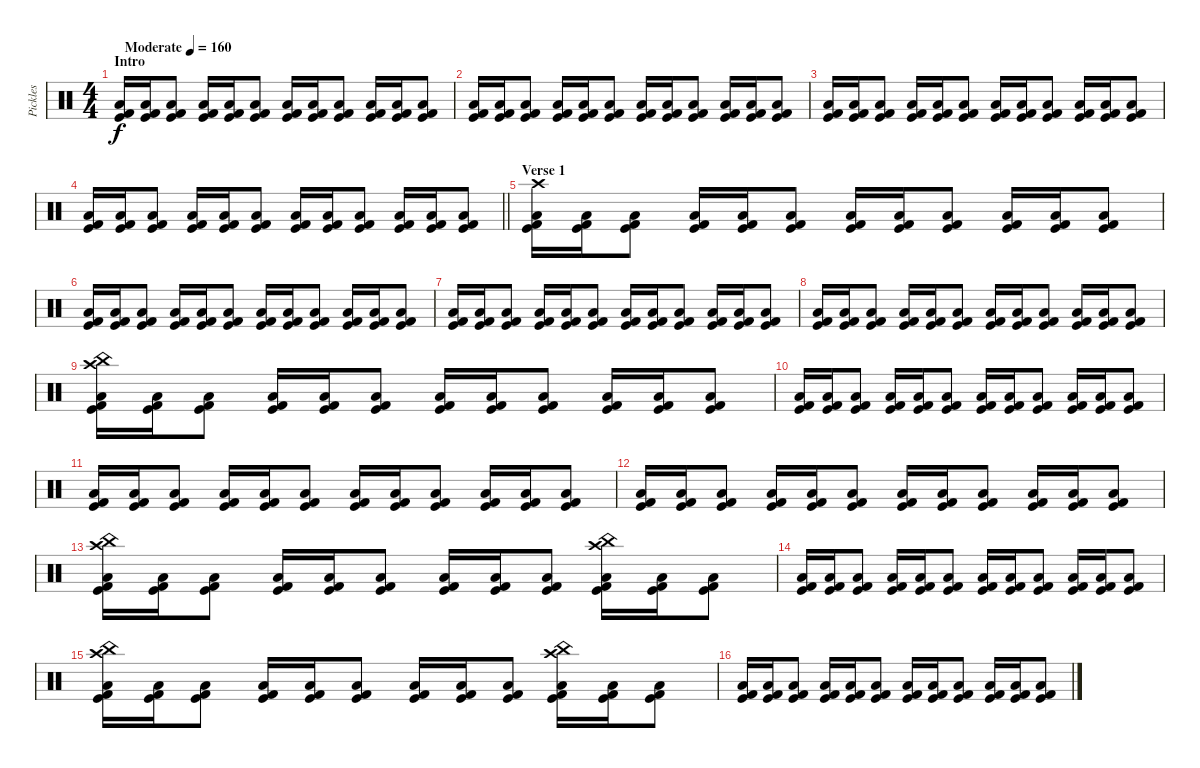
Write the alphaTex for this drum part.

\track ("Pickles" "Pickles") {instrument percussion}
\staff {score}
\articulation defaults
\ts (4 4)
\section ("" "Intro")
\tempo (160 "Moderate")
\clef neutral
\ks c
("Kick (hit) 2" "Kick (hit)" "Low Tom (hit)").16{dy f} ("Kick (hit) 2" "Kick (hit)" "Low Tom (hit)").16 ("Kick (hit) 2" "Kick (hit)" "Low Tom (hit)").8 ("Kick (hit) 2" "Kick (hit)" "Low Tom (hit)").16 ("Kick (hit) 2" "Kick (hit)" "Low Tom (hit)").16 ("Kick (hit) 2" "Kick (hit)" "Low Tom (hit)").8 ("Kick (hit) 2" "Kick (hit)" "Low Tom (hit)").16 ("Kick (hit) 2" "Kick (hit)" "Low Tom (hit)").16 ("Kick (hit) 2" "Kick (hit)" "Low Tom (hit)").8 ("Kick (hit) 2" "Kick (hit)" "Low Tom (hit)").16 ("Kick (hit) 2" "Kick (hit)" "Low Tom (hit)").16 ("Kick (hit) 2" "Kick (hit)" "Low Tom (hit)").8 |
("Kick (hit) 2" "Kick (hit)" "Low Tom (hit)").16 ("Kick (hit) 2" "Kick (hit)" "Low Tom (hit)").16 ("Kick (hit) 2" "Kick (hit)" "Low Tom (hit)").8 ("Kick (hit) 2" "Kick (hit)" "Low Tom (hit)").16 ("Kick (hit) 2" "Kick (hit)" "Low Tom (hit)").16 ("Kick (hit) 2" "Kick (hit)" "Low Tom (hit)").8 ("Kick (hit) 2" "Kick (hit)" "Low Tom (hit)").16 ("Kick (hit) 2" "Kick (hit)" "Low Tom (hit)").16 ("Kick (hit) 2" "Kick (hit)" "Low Tom (hit)").8 ("Kick (hit) 2" "Kick (hit)" "Low Tom (hit)").16 ("Kick (hit) 2" "Kick (hit)" "Low Tom (hit)").16 ("Kick (hit) 2" "Kick (hit)" "Low Tom (hit)").8 |
("Kick (hit) 2" "Kick (hit)" "Low Tom (hit)").16 ("Kick (hit) 2" "Kick (hit)" "Low Tom (hit)").16 ("Kick (hit) 2" "Kick (hit)" "Low Tom (hit)").8 ("Kick (hit) 2" "Kick (hit)" "Low Tom (hit)").16 ("Kick (hit) 2" "Kick (hit)" "Low Tom (hit)").16 ("Kick (hit) 2" "Kick (hit)" "Low Tom (hit)").8 ("Kick (hit) 2" "Kick (hit)" "Low Tom (hit)").16 ("Kick (hit) 2" "Kick (hit)" "Low Tom (hit)").16 ("Kick (hit) 2" "Kick (hit)" "Low Tom (hit)").8 ("Kick (hit) 2" "Kick (hit)" "Low Tom (hit)").16 ("Kick (hit) 2" "Kick (hit)" "Low Tom (hit)").16 ("Kick (hit) 2" "Kick (hit)" "Low Tom (hit)").8 |
\barLineRight lightlight
("Kick (hit) 2" "Kick (hit)" "Low Tom (hit)").16 ("Kick (hit) 2" "Kick (hit)" "Low Tom (hit)").16 ("Kick (hit) 2" "Kick (hit)" "Low Tom (hit)").8 ("Kick (hit) 2" "Kick (hit)" "Low Tom (hit)").16 ("Kick (hit) 2" "Kick (hit)" "Low Tom (hit)").16 ("Kick (hit) 2" "Kick (hit)" "Low Tom (hit)").8 ("Kick (hit) 2" "Kick (hit)" "Low Tom (hit)").16 ("Kick (hit) 2" "Kick (hit)" "Low Tom (hit)").16 ("Kick (hit) 2" "Kick (hit)" "Low Tom (hit)").8 ("Kick (hit) 2" "Kick (hit)" "Low Tom (hit)").16 ("Kick (hit) 2" "Kick (hit)" "Low Tom (hit)").16 ("Kick (hit) 2" "Kick (hit)" "Low Tom (hit)").8 |
\section ("" "Verse 1")
("Kick (hit) 2" "Kick (hit)" "Low Tom (hit)" "Crash high (hit)").16 ("Kick (hit) 2" "Kick (hit)" "Low Tom (hit)").16 ("Kick (hit) 2" "Kick (hit)" "Low Tom (hit)").8 ("Kick (hit) 2" "Kick (hit)" "Low Tom (hit)").16 ("Kick (hit) 2" "Kick (hit)" "Low Tom (hit)").16 ("Kick (hit) 2" "Kick (hit)" "Low Tom (hit)").8 ("Kick (hit) 2" "Kick (hit)" "Low Tom (hit)").16 ("Kick (hit) 2" "Kick (hit)" "Low Tom (hit)").16 ("Kick (hit) 2" "Kick (hit)" "Low Tom (hit)").8 ("Kick (hit) 2" "Kick (hit)" "Low Tom (hit)").16 ("Kick (hit) 2" "Kick (hit)" "Low Tom (hit)").16 ("Kick (hit) 2" "Kick (hit)" "Low Tom (hit)").8 |
("Kick (hit) 2" "Kick (hit)" "Low Tom (hit)").16 ("Kick (hit) 2" "Kick (hit)" "Low Tom (hit)").16 ("Kick (hit) 2" "Kick (hit)" "Low Tom (hit)").8 ("Kick (hit) 2" "Kick (hit)" "Low Tom (hit)").16 ("Kick (hit) 2" "Kick (hit)" "Low Tom (hit)").16 ("Kick (hit) 2" "Kick (hit)" "Low Tom (hit)").8 ("Kick (hit) 2" "Kick (hit)" "Low Tom (hit)").16 ("Kick (hit) 2" "Kick (hit)" "Low Tom (hit)").16 ("Kick (hit) 2" "Kick (hit)" "Low Tom (hit)").8 ("Kick (hit) 2" "Kick (hit)" "Low Tom (hit)").16 ("Kick (hit) 2" "Kick (hit)" "Low Tom (hit)").16 ("Kick (hit) 2" "Kick (hit)" "Low Tom (hit)").8 |
("Kick (hit) 2" "Kick (hit)" "Low Tom (hit)").16 ("Kick (hit) 2" "Kick (hit)" "Low Tom (hit)").16 ("Kick (hit) 2" "Kick (hit)" "Low Tom (hit)").8 ("Kick (hit) 2" "Kick (hit)" "Low Tom (hit)").16 ("Kick (hit) 2" "Kick (hit)" "Low Tom (hit)").16 ("Kick (hit) 2" "Kick (hit)" "Low Tom (hit)").8 ("Kick (hit) 2" "Kick (hit)" "Low Tom (hit)").16 ("Kick (hit) 2" "Kick (hit)" "Low Tom (hit)").16 ("Kick (hit) 2" "Kick (hit)" "Low Tom (hit)").8 ("Kick (hit) 2" "Kick (hit)" "Low Tom (hit)").16 ("Kick (hit) 2" "Kick (hit)" "Low Tom (hit)").16 ("Kick (hit) 2" "Kick (hit)" "Low Tom (hit)").8 |
("Kick (hit) 2" "Kick (hit)" "Low Tom (hit)").16 ("Kick (hit) 2" "Kick (hit)" "Low Tom (hit)").16 ("Kick (hit) 2" "Kick (hit)" "Low Tom (hit)").8 ("Kick (hit) 2" "Kick (hit)" "Low Tom (hit)").16 ("Kick (hit) 2" "Kick (hit)" "Low Tom (hit)").16 ("Kick (hit) 2" "Kick (hit)" "Low Tom (hit)").8 ("Kick (hit) 2" "Kick (hit)" "Low Tom (hit)").16 ("Kick (hit) 2" "Kick (hit)" "Low Tom (hit)").16 ("Kick (hit) 2" "Kick (hit)" "Low Tom (hit)").8 ("Kick (hit) 2" "Kick (hit)" "Low Tom (hit)").16 ("Kick (hit) 2" "Kick (hit)" "Low Tom (hit)").16 ("Kick (hit) 2" "Kick (hit)" "Low Tom (hit)").8 |
("Kick (hit) 2" "Kick (hit)" "Low Tom (hit)" "China (hit)" "Crash high (hit)").16 ("Kick (hit) 2" "Kick (hit)" "Low Tom (hit)").16 ("Kick (hit) 2" "Kick (hit)" "Low Tom (hit)").8 ("Kick (hit) 2" "Kick (hit)" "Low Tom (hit)").16 ("Kick (hit) 2" "Kick (hit)" "Low Tom (hit)").16 ("Kick (hit) 2" "Kick (hit)" "Low Tom (hit)").8 ("Kick (hit) 2" "Kick (hit)" "Low Tom (hit)").16 ("Kick (hit) 2" "Kick (hit)" "Low Tom (hit)").16 ("Kick (hit) 2" "Kick (hit)" "Low Tom (hit)").8 ("Kick (hit) 2" "Kick (hit)" "Low Tom (hit)").16 ("Kick (hit) 2" "Kick (hit)" "Low Tom (hit)").16 ("Kick (hit) 2" "Kick (hit)" "Low Tom (hit)").8 |
("Kick (hit) 2" "Kick (hit)" "Low Tom (hit)").16 ("Kick (hit) 2" "Kick (hit)" "Low Tom (hit)").16 ("Kick (hit) 2" "Kick (hit)" "Low Tom (hit)").8 ("Kick (hit) 2" "Kick (hit)" "Low Tom (hit)").16 ("Kick (hit) 2" "Kick (hit)" "Low Tom (hit)").16 ("Kick (hit) 2" "Kick (hit)" "Low Tom (hit)").8 ("Kick (hit) 2" "Kick (hit)" "Low Tom (hit)").16 ("Kick (hit) 2" "Kick (hit)" "Low Tom (hit)").16 ("Kick (hit) 2" "Kick (hit)" "Low Tom (hit)").8 ("Kick (hit) 2" "Kick (hit)" "Low Tom (hit)").16 ("Kick (hit) 2" "Kick (hit)" "Low Tom (hit)").16 ("Kick (hit) 2" "Kick (hit)" "Low Tom (hit)").8 |
("Kick (hit) 2" "Kick (hit)" "Low Tom (hit)").16 ("Kick (hit) 2" "Kick (hit)" "Low Tom (hit)").16 ("Kick (hit) 2" "Kick (hit)" "Low Tom (hit)").8 ("Kick (hit) 2" "Kick (hit)" "Low Tom (hit)").16 ("Kick (hit) 2" "Kick (hit)" "Low Tom (hit)").16 ("Kick (hit) 2" "Kick (hit)" "Low Tom (hit)").8 ("Kick (hit) 2" "Kick (hit)" "Low Tom (hit)").16 ("Kick (hit) 2" "Kick (hit)" "Low Tom (hit)").16 ("Kick (hit) 2" "Kick (hit)" "Low Tom (hit)").8 ("Kick (hit) 2" "Kick (hit)" "Low Tom (hit)").16 ("Kick (hit) 2" "Kick (hit)" "Low Tom (hit)").16 ("Kick (hit) 2" "Kick (hit)" "Low Tom (hit)").8 |
("Kick (hit) 2" "Kick (hit)" "Low Tom (hit)").16 ("Kick (hit) 2" "Kick (hit)" "Low Tom (hit)").16 ("Kick (hit) 2" "Kick (hit)" "Low Tom (hit)").8 ("Kick (hit) 2" "Kick (hit)" "Low Tom (hit)").16 ("Kick (hit) 2" "Kick (hit)" "Low Tom (hit)").16 ("Kick (hit) 2" "Kick (hit)" "Low Tom (hit)").8 ("Kick (hit) 2" "Kick (hit)" "Low Tom (hit)").16 ("Kick (hit) 2" "Kick (hit)" "Low Tom (hit)").16 ("Kick (hit) 2" "Kick (hit)" "Low Tom (hit)").8 ("Kick (hit) 2" "Kick (hit)" "Low Tom (hit)").16 ("Kick (hit) 2" "Kick (hit)" "Low Tom (hit)").16 ("Kick (hit) 2" "Kick (hit)" "Low Tom (hit)").8 |
("Kick (hit) 2" "Kick (hit)" "Low Tom (hit)" "China (hit)" "Crash high (hit)").16 ("Kick (hit) 2" "Kick (hit)" "Low Tom (hit)").16 ("Kick (hit) 2" "Kick (hit)" "Low Tom (hit)").8 ("Kick (hit) 2" "Kick (hit)" "Low Tom (hit)").16 ("Kick (hit) 2" "Kick (hit)" "Low Tom (hit)").16 ("Kick (hit) 2" "Kick (hit)" "Low Tom (hit)").8 ("Kick (hit) 2" "Kick (hit)" "Low Tom (hit)").16 ("Kick (hit) 2" "Kick (hit)" "Low Tom (hit)").16 ("Kick (hit) 2" "Kick (hit)" "Low Tom (hit)").8 ("Kick (hit) 2" "Kick (hit)" "Low Tom (hit)" "China (hit)" "Crash high (hit)").16 ("Kick (hit) 2" "Kick (hit)" "Low Tom (hit)").16 ("Kick (hit) 2" "Kick (hit)" "Low Tom (hit)").8 |
("Kick (hit) 2" "Kick (hit)" "Low Tom (hit)").16 ("Kick (hit) 2" "Kick (hit)" "Low Tom (hit)").16 ("Kick (hit) 2" "Kick (hit)" "Low Tom (hit)").8 ("Kick (hit) 2" "Kick (hit)" "Low Tom (hit)").16 ("Kick (hit) 2" "Kick (hit)" "Low Tom (hit)").16 ("Kick (hit) 2" "Kick (hit)" "Low Tom (hit)").8 ("Kick (hit) 2" "Kick (hit)" "Low Tom (hit)").16 ("Kick (hit) 2" "Kick (hit)" "Low Tom (hit)").16 ("Kick (hit) 2" "Kick (hit)" "Low Tom (hit)").8 ("Kick (hit) 2" "Kick (hit)" "Low Tom (hit)").16 ("Kick (hit) 2" "Kick (hit)" "Low Tom (hit)").16 ("Kick (hit) 2" "Kick (hit)" "Low Tom (hit)").8 |
("Kick (hit) 2" "Kick (hit)" "Low Tom (hit)" "China (hit)" "Crash high (hit)").16 ("Kick (hit) 2" "Kick (hit)" "Low Tom (hit)").16 ("Kick (hit) 2" "Kick (hit)" "Low Tom (hit)").8 ("Kick (hit) 2" "Kick (hit)" "Low Tom (hit)").16 ("Kick (hit) 2" "Kick (hit)" "Low Tom (hit)").16 ("Kick (hit) 2" "Kick (hit)" "Low Tom (hit)").8 ("Kick (hit) 2" "Kick (hit)" "Low Tom (hit)").16 ("Kick (hit) 2" "Kick (hit)" "Low Tom (hit)").16 ("Kick (hit) 2" "Kick (hit)" "Low Tom (hit)").8 ("Kick (hit) 2" "Kick (hit)" "Low Tom (hit)" "China (hit)" "Crash high (hit)").16 ("Kick (hit) 2" "Kick (hit)" "Low Tom (hit)").16 ("Kick (hit) 2" "Kick (hit)" "Low Tom (hit)").8 |
("Kick (hit) 2" "Kick (hit)" "Low Tom (hit)").16 ("Kick (hit) 2" "Kick (hit)" "Low Tom (hit)").16 ("Kick (hit) 2" "Kick (hit)" "Low Tom (hit)").8 ("Kick (hit) 2" "Kick (hit)" "Low Tom (hit)").16 ("Kick (hit) 2" "Kick (hit)" "Low Tom (hit)").16 ("Kick (hit) 2" "Kick (hit)" "Low Tom (hit)").8 ("Kick (hit) 2" "Kick (hit)" "Low Tom (hit)").16 ("Kick (hit) 2" "Kick (hit)" "Low Tom (hit)").16 ("Kick (hit) 2" "Kick (hit)" "Low Tom (hit)").8 ("Kick (hit) 2" "Kick (hit)" "Low Tom (hit)").16 ("Kick (hit) 2" "Kick (hit)" "Low Tom (hit)").16 ("Kick (hit) 2" "Kick (hit)" "Low Tom (hit)").8
